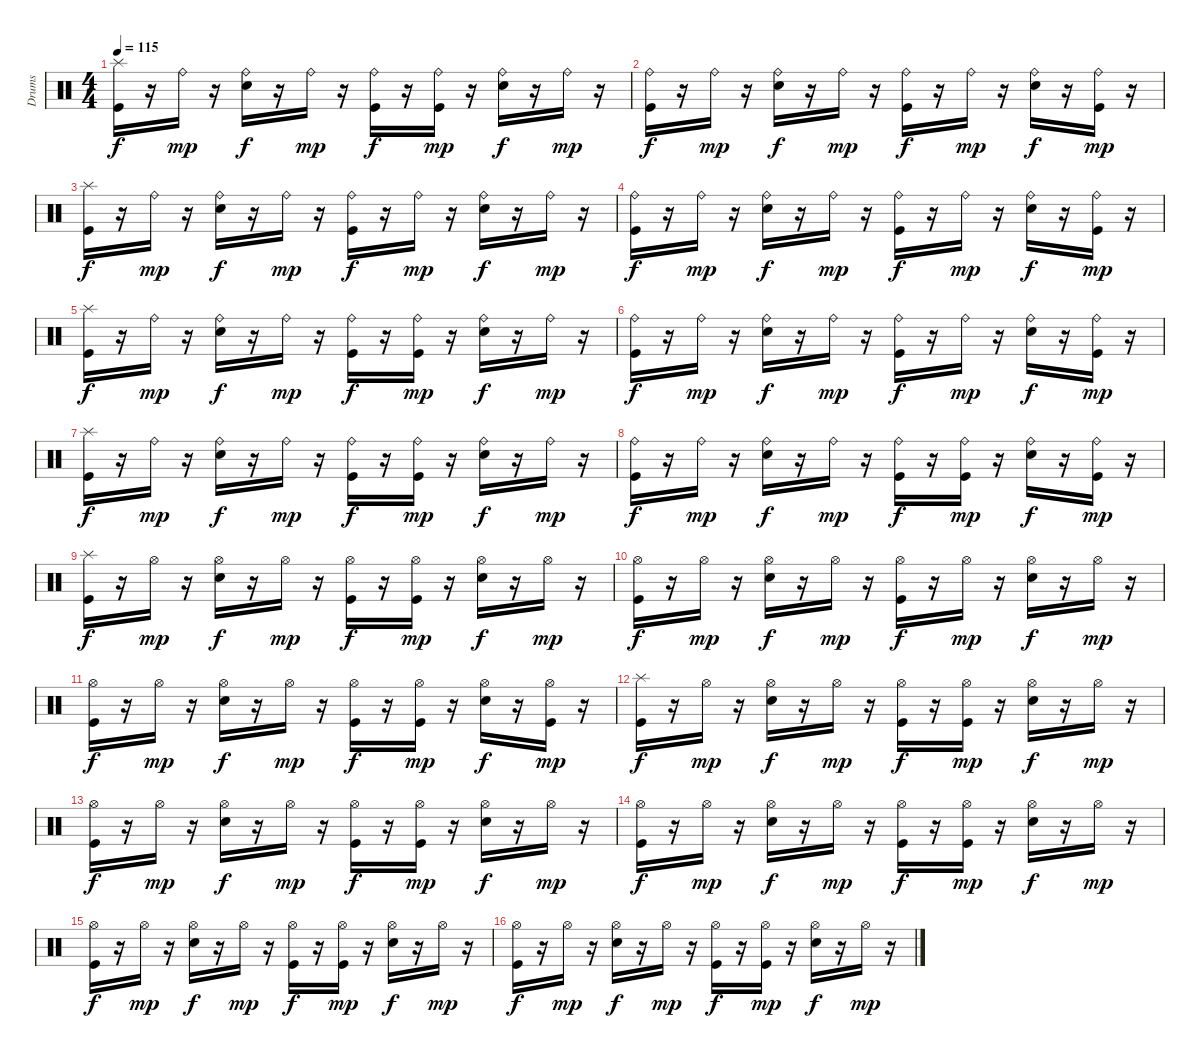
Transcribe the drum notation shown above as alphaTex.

\track ("Drums" "Drums") {instrument percussion}
\staff {score}
\articulation defaults
\ts (4 4)
\tempo 115
\clef neutral
\ks c
("Splash (hit)" "Kick (hit)").16{dy f} r.16 "Ride (bell)".16{dy mp} r.16 ("Ride (bell)" "Electric Snare (hit)").16{dy f} r.16 "Ride (bell)".16{dy mp} r.16 ("Ride (bell)" "Kick (hit)").16{dy f} r.16 ("Ride (bell)" "Kick (hit)").16{dy mp} r.16 ("Ride (bell)" "Electric Snare (hit)").16{dy f} r.16 "Ride (bell)".16{dy mp} r.16 |
("Ride (bell)" "Kick (hit)").16{dy f} r.16 "Ride (bell)".16{dy mp} r.16 ("Ride (bell)" "Electric Snare (hit)").16{dy f} r.16 "Ride (bell)".16{dy mp} r.16 ("Ride (bell)" "Kick (hit)").16{dy f} r.16 "Ride (bell)".16{dy mp} r.16 ("Ride (bell)" "Electric Snare (hit)").16{dy f} r.16 ("Ride (bell)" "Kick (hit)").16{dy mp} r.16 |
("Splash (hit)" "Kick (hit)").16{dy f} r.16 "Ride (bell)".16{dy mp} r.16 ("Ride (bell)" "Electric Snare (hit)").16{dy f} r.16 "Ride (bell)".16{dy mp} r.16 ("Ride (bell)" "Kick (hit)").16{dy f} r.16 "Ride (bell)".16{dy mp} r.16 ("Ride (bell)" "Electric Snare (hit)").16{dy f} r.16 "Ride (bell)".16{dy mp} r.16 |
("Ride (bell)" "Kick (hit)").16{dy f} r.16 "Ride (bell)".16{dy mp} r.16 ("Ride (bell)" "Electric Snare (hit)").16{dy f} r.16 "Ride (bell)".16{dy mp} r.16 ("Ride (bell)" "Kick (hit)").16{dy f} r.16 "Ride (bell)".16{dy mp} r.16 ("Ride (bell)" "Electric Snare (hit)").16{dy f} r.16 ("Ride (bell)" "Kick (hit)").16{dy mp} r.16 |
("Splash (hit)" "Kick (hit)").16{dy f} r.16 "Ride (bell)".16{dy mp} r.16 ("Ride (bell)" "Electric Snare (hit)").16{dy f} r.16 "Ride (bell)".16{dy mp} r.16 ("Ride (bell)" "Kick (hit)").16{dy f} r.16 ("Ride (bell)" "Kick (hit)").16{dy mp} r.16 ("Ride (bell)" "Electric Snare (hit)").16{dy f} r.16 "Ride (bell)".16{dy mp} r.16 |
("Ride (bell)" "Kick (hit)").16{dy f} r.16 "Ride (bell)".16{dy mp} r.16 ("Ride (bell)" "Electric Snare (hit)").16{dy f} r.16 "Ride (bell)".16{dy mp} r.16 ("Ride (bell)" "Kick (hit)").16{dy f} r.16 "Ride (bell)".16{dy mp} r.16 ("Ride (bell)" "Electric Snare (hit)").16{dy f} r.16 ("Ride (bell)" "Kick (hit)").16{dy mp} r.16 |
("Splash (hit)" "Kick (hit)").16{dy f} r.16 "Ride (bell)".16{dy mp} r.16 ("Ride (bell)" "Electric Snare (hit)").16{dy f} r.16 "Ride (bell)".16{dy mp} r.16 ("Ride (bell)" "Kick (hit)").16{dy f} r.16 ("Ride (bell)" "Kick (hit)").16{dy mp} r.16 ("Ride (bell)" "Electric Snare (hit)").16{dy f} r.16 "Ride (bell)".16{dy mp} r.16 |
("Ride (bell)" "Kick (hit)").16{dy f} r.16 "Ride (bell)".16{dy mp} r.16 ("Ride (bell)" "Electric Snare (hit)").16{dy f} r.16 "Ride (bell)".16{dy mp} r.16 ("Ride (bell)" "Kick (hit)").16{dy f} r.16 ("Ride (bell)" "Kick (hit)").16{dy mp} r.16 ("Ride (bell)" "Electric Snare (hit)").16{dy f} r.16 ("Ride (bell)" "Kick (hit)").16{dy mp} r.16 |
("Splash (hit)" "Kick (hit)").16{dy f} r.16 "Hi-Hat (open)".16{dy mp} r.16 ("Hi-Hat (open)" "Electric Snare (hit)").16{dy f} r.16 "Hi-Hat (open)".16{dy mp} r.16 ("Hi-Hat (open)" "Kick (hit)").16{dy f} r.16 ("Kick (hit)" "Hi-Hat (open)").16{dy mp} r.16 ("Hi-Hat (open)" "Electric Snare (hit)").16{dy f} r.16 "Hi-Hat (open)".16{dy mp} r.16 |
("Hi-Hat (open)" "Kick (hit)").16{dy f} r.16 "Hi-Hat (open)".16{dy mp} r.16 ("Hi-Hat (open)" "Electric Snare (hit)").16{dy f} r.16 "Hi-Hat (open)".16{dy mp} r.16 ("Hi-Hat (open)" "Kick (hit)").16{dy f} r.16 "Hi-Hat (open)".16{dy mp} r.16 ("Hi-Hat (open)" "Electric Snare (hit)").16{dy f} r.16 "Hi-Hat (open)".16{dy mp} r.16 |
("Hi-Hat (open)" "Kick (hit)").16{dy f} r.16 "Hi-Hat (open)".16{dy mp} r.16 ("Hi-Hat (open)" "Electric Snare (hit)").16{dy f} r.16 "Hi-Hat (open)".16{dy mp} r.16 ("Hi-Hat (open)" "Kick (hit)").16{dy f} r.16 ("Kick (hit)" "Hi-Hat (open)").16{dy mp} r.16 ("Hi-Hat (open)" "Electric Snare (hit)").16{dy f} r.16 ("Kick (hit)" "Hi-Hat (open)").16{dy mp} r.16 |
("Splash (hit)" "Kick (hit)").16{dy f} r.16 "Hi-Hat (open)".16{dy mp} r.16 ("Hi-Hat (open)" "Electric Snare (hit)").16{dy f} r.16 "Hi-Hat (open)".16{dy mp} r.16 ("Hi-Hat (open)" "Kick (hit)").16{dy f} r.16 ("Kick (hit)" "Hi-Hat (open)").16{dy mp} r.16 ("Hi-Hat (open)" "Electric Snare (hit)").16{dy f} r.16 "Hi-Hat (open)".16{dy mp} r.16 |
("Hi-Hat (open)" "Kick (hit)").16{dy f} r.16 "Hi-Hat (open)".16{dy mp} r.16 ("Hi-Hat (open)" "Electric Snare (hit)").16{dy f} r.16 "Hi-Hat (open)".16{dy mp} r.16 ("Hi-Hat (open)" "Kick (hit)").16{dy f} r.16 ("Kick (hit)" "Hi-Hat (open)").16{dy mp} r.16 ("Hi-Hat (open)" "Electric Snare (hit)").16{dy f} r.16 "Hi-Hat (open)".16{dy mp} r.16 |
("Hi-Hat (open)" "Kick (hit)").16{dy f} r.16 "Hi-Hat (open)".16{dy mp} r.16 ("Hi-Hat (open)" "Electric Snare (hit)").16{dy f} r.16 "Hi-Hat (open)".16{dy mp} r.16 ("Hi-Hat (open)" "Kick (hit)").16{dy f} r.16 ("Kick (hit)" "Hi-Hat (open)").16{dy mp} r.16 ("Hi-Hat (open)" "Electric Snare (hit)").16{dy f} r.16 "Hi-Hat (open)".16{dy mp} r.16 |
("Hi-Hat (open)" "Kick (hit)").16{dy f} r.16 "Hi-Hat (open)".16{dy mp} r.16 ("Hi-Hat (open)" "Electric Snare (hit)").16{dy f} r.16 "Hi-Hat (open)".16{dy mp} r.16 ("Hi-Hat (open)" "Kick (hit)").16{dy f} r.16 ("Kick (hit)" "Hi-Hat (open)").16{dy mp} r.16 ("Hi-Hat (open)" "Electric Snare (hit)").16{dy f} r.16 "Hi-Hat (open)".16{dy mp} r.16 |
("Hi-Hat (open)" "Kick (hit)").16{dy f} r.16 "Hi-Hat (open)".16{dy mp} r.16 ("Hi-Hat (open)" "Electric Snare (hit)").16{dy f} r.16 "Hi-Hat (open)".16{dy mp} r.16 ("Hi-Hat (open)" "Kick (hit)").16{dy f} r.16 ("Kick (hit)" "Hi-Hat (open)").16{dy mp} r.16 ("Hi-Hat (open)" "Electric Snare (hit)").16{dy f} r.16 "Hi-Hat (open)".16{dy mp} r.16
